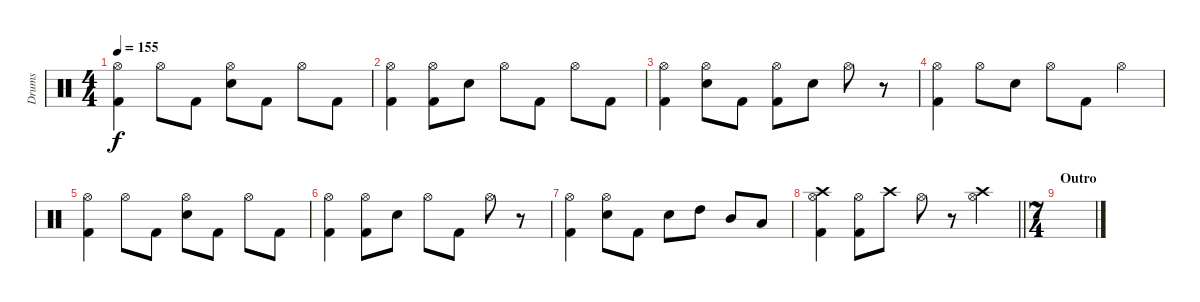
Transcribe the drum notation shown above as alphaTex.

\track ("Drums" "Drums") {instrument percussion}
\staff {score}
\articulation defaults
\ts (4 4)
\tempo 155
\clef neutral
\ks c
("Hi-Hat (open)" "Kick (hit) 2").4{dy f} "Hi-Hat (open)".8 "Kick (hit) 2".8 ("Hi-Hat (open)" "Electric Snare (hit)").8 "Kick (hit) 2".8 "Hi-Hat (open)".8 "Kick (hit) 2".8 |
("Hi-Hat (open)" "Kick (hit) 2").4 ("Hi-Hat (open)" "Kick (hit) 2").8 "Electric Snare (hit)".8 "Hi-Hat (open)".8 "Kick (hit) 2".8 "Hi-Hat (open)".8 "Kick (hit) 2".8 |
("Hi-Hat (open)" "Kick (hit) 2").4 ("Hi-Hat (open)" "Electric Snare (hit)").8 "Kick (hit) 2".8 ("Hi-Hat (open)" "Kick (hit) 2").8 "Electric Snare (hit)".8 "Hi-Hat (open)".8 r.8 |
("Hi-Hat (open)" "Kick (hit) 2").4 "Hi-Hat (open)".8 "Electric Snare (hit)".8 "Hi-Hat (open)".8 "Kick (hit) 2".8 "Hi-Hat (open)".4 |
("Hi-Hat (open)" "Kick (hit) 2").4 "Hi-Hat (open)".8 "Kick (hit) 2".8 ("Hi-Hat (open)" "Electric Snare (hit)").8 "Kick (hit) 2".8 "Hi-Hat (open)".8 "Kick (hit) 2".8 |
("Hi-Hat (open)" "Kick (hit) 2").4 ("Hi-Hat (open)" "Kick (hit) 2").8 "Electric Snare (hit)".8 "Hi-Hat (open)".8 "Kick (hit) 2".8 "Hi-Hat (open)".8 r.8 |
("Hi-Hat (open)" "Kick (hit) 2").4 ("Hi-Hat (open)" "Electric Snare (hit)").8 "Kick (hit) 2".8 "Electric Snare (hit)".8 "High Tom (hit)".8 "Mid Tom (hit)".8 "Low Tom (hit)".8 |
\barLineRight lightlight
("Hi-Hat (open)" "Crash high (hit)" "Kick (hit) 2").4 ("Hi-Hat (open)" "Kick (hit) 2").8 "Crash high (hit)".8 "Hi-Hat (open)".8 r.8 ("Hi-Hat (open)" "Crash high (hit)").4 |
\ts (7 4)
\section ("" "Outro")
